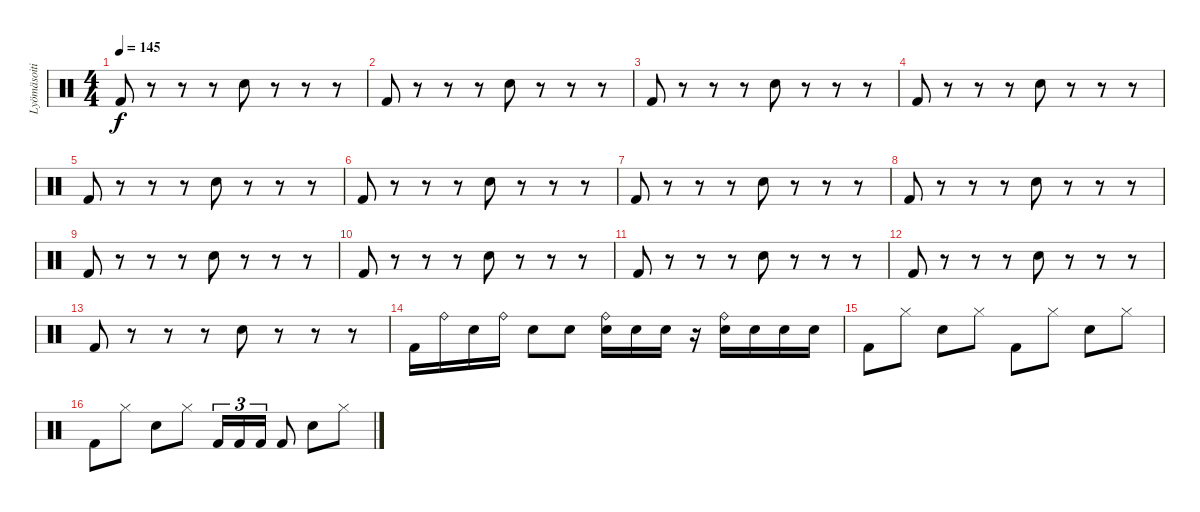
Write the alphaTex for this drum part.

\track ("Lyömäsoitin" "Lyömäsoiti") {instrument percussion}
\staff {score}
\articulation defaults
\ts (4 4)
\tempo 145
\clef neutral
\ks c "Kick (hit) 2".8{dy f}
r.8 r.8 r.8 "Electric Snare (hit)".8 r.8 r.8 r.8 |
"Kick (hit) 2".8 r.8 r.8 r.8 "Electric Snare (hit)".8 r.8 r.8 r.8 |
"Kick (hit) 2".8 r.8 r.8 r.8 "Electric Snare (hit)".8 r.8 r.8 r.8 |
"Kick (hit) 2".8 r.8 r.8 r.8 "Electric Snare (hit)".8 r.8 r.8 r.8 |
"Kick (hit) 2".8 r.8 r.8 r.8 "Electric Snare (hit)".8 r.8 r.8 r.8 |
"Kick (hit) 2".8 r.8 r.8 r.8 "Electric Snare (hit)".8 r.8 r.8 r.8 |
"Kick (hit) 2".8 r.8 r.8 r.8 "Electric Snare (hit)".8 r.8 r.8 r.8 |
"Kick (hit) 2".8 r.8 r.8 r.8 "Electric Snare (hit)".8 r.8 r.8 r.8 |
"Kick (hit) 2".8 r.8 r.8 r.8 "Electric Snare (hit)".8 r.8 r.8 r.8 |
"Kick (hit) 2".8 r.8 r.8 r.8 "Electric Snare (hit)".8 r.8 r.8 r.8 |
"Kick (hit) 2".8 r.8 r.8 r.8 "Electric Snare (hit)".8 r.8 r.8 r.8 |
"Kick (hit) 2".8 r.8 r.8 r.8 "Electric Snare (hit)".8 r.8 r.8 r.8 |
"Kick (hit) 2".8 r.8 r.8 r.8 "Electric Snare (hit)".8 r.8 r.8 r.8 |
"Kick (hit) 2".16 "Ride (bell)".16 "Electric Snare (hit)".16 "Ride (bell)".16 "Electric Snare (hit)".8 "Electric Snare (hit)".8 ("Ride (bell)" "Electric Snare (hit)").16 "Electric Snare (hit)".16 "Electric Snare (hit)".16 r.16 ("Ride (bell)" "Electric Snare (hit)").16 "Electric Snare (hit)".16 "Electric Snare (hit)".16 "Electric Snare (hit)".16 |
"Kick (hit) 2".8 "Hi-Hat (closed)".8 "Electric Snare (hit)".8 "Hi-Hat (closed)".8 "Kick (hit) 2".8 "Hi-Hat (closed)".8 "Electric Snare (hit)".8 "Hi-Hat (closed)".8 |
"Kick (hit) 2".8 "Hi-Hat (closed)".8 "Electric Snare (hit)".8 "Hi-Hat (closed)".8 "Kick (hit) 2".16{tu (3 2)} "Kick (hit) 2".16{tu (3 2)} "Kick (hit) 2".16{tu (3 2)} "Kick (hit) 2".8 "Electric Snare (hit)".8 "Hi-Hat (closed)".8
